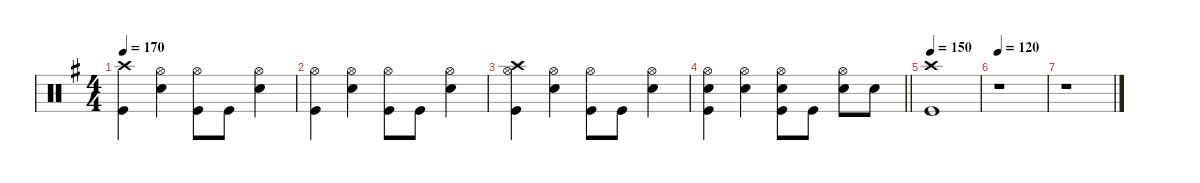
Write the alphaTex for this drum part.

\defaultSystemsLayout 4
\hideDynamics
\bracketExtendMode groupsimilarinstruments
\singleTrackTrackNamePolicy hidden
\multiTrackTrackNamePolicy hidden
\firstSystemTrackNameMode fullname
\firstSystemTrackNameOrientation horizontal
\otherSystemsTrackNameOrientation horizontal
\track ("Drums" "drm.") {instrument percussion}
\staff {score}
\articulation defaults
\ts (4 4)
\tempo 170
\clef neutral
\ks g
("Crash high (hit)"{acc forcenatural} "Kick (hit)"{acc forcenatural}).4{dy f beam Down} ("Hi-Hat (open)"{acc forcenatural} "Snare (hit) 2"{acc forcenatural}).4{beam Down} ("Hi-Hat (open)"{acc forcenatural} "Kick (hit)"{acc forcenatural}).8{beam Down} "Kick (hit)"{acc forcenatural}.8{beam Down} ("Hi-Hat (open)"{acc forcenatural} "Snare (hit) 2"{acc forcenatural}).4{beam Down} |
("Hi-Hat (open)"{acc forcenatural} "Kick (hit)"{acc forcenatural}).4{beam Down} ("Hi-Hat (open)"{acc forcenatural} "Snare (hit) 2"{acc forcenatural}).4{beam Down} ("Hi-Hat (open)"{acc forcenatural} "Kick (hit)"{acc forcenatural}).8{beam Down} "Kick (hit)"{acc forcenatural}.8{beam Down} ("Hi-Hat (open)"{acc forcenatural} "Snare (hit) 2"{acc forcenatural}).4{beam Down} |
("Hi-Hat (open)"{acc forcenatural} "Crash high (hit)"{acc forcenatural} "Kick (hit)"{acc forcenatural}).4{beam Down} ("Hi-Hat (open)"{acc forcenatural} "Snare (hit) 2"{acc forcenatural}).4{beam Down} ("Hi-Hat (open)"{acc forcenatural} "Kick (hit)"{acc forcenatural}).8{beam Down} "Kick (hit)"{acc forcenatural}.8{beam Down} ("Hi-Hat (open)"{acc forcenatural} "Snare (hit) 2"{acc forcenatural}).4{beam Down} |
\barLineRight lightlight
("Hi-Hat (open)"{acc forcenatural} "Snare (hit) 2"{acc forcenatural} "Kick (hit)"{acc forcenatural}).4{beam Down} ("Hi-Hat (open)"{acc forcenatural} "Snare (hit) 2"{acc forcenatural}).4{beam Down} ("Hi-Hat (open)"{acc forcenatural} "Snare (hit) 2"{acc forcenatural} "Kick (hit)"{acc forcenatural}).8{beam Down} "Kick (hit)"{acc forcenatural}.8{beam Down} ("Hi-Hat (open)"{acc forcenatural} "Snare (hit) 2"{acc forcenatural}).8{beam Down} "Snare (hit) 2"{acc forcenatural}.8{beam Down} |
\tempo 150
("Crash high (hit)"{acc forcenatural} "Kick (hit)"{acc forcenatural}).1{beam Down} |
\tempo 120
r.1{beam Down} |
r.1{beam Down}
